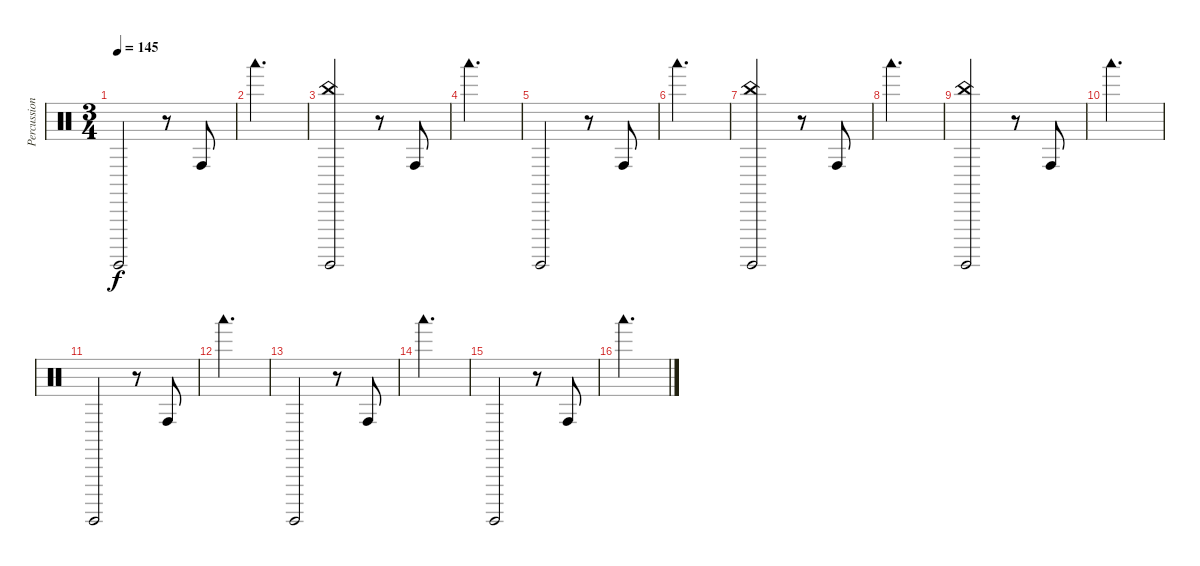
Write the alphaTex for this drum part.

\track ("Percussion" "Percussion") {instrument percussion}
\staff {score}
\articulation defaults
\ts (3 4)
\tempo 145
\clef neutral
\ks c "Surdo (hit)".2{dy f}
r.8 "Conga high (hit)".8 |
"Woodblock low (hit)".2{d} |
("China (hit)" "Surdo (hit)").2 r.8 "Conga high (hit)".8 |
"Woodblock low (hit)".2{d} |
"Surdo (hit)".2 r.8 "Conga high (hit)".8 |
"Woodblock low (hit)".2{d} |
("China (hit)" "Surdo (hit)").2 r.8 "Conga high (hit)".8 |
"Woodblock low (hit)".2{d} |
("China (hit)" "Surdo (hit)").2 r.8 "Conga high (hit)".8 |
"Woodblock low (hit)".2{d} |
"Surdo (hit)".2 r.8 "Conga high (hit)".8 |
"Woodblock low (hit)".2{d} |
"Surdo (hit)".2 r.8 "Conga high (hit)".8 |
"Woodblock low (hit)".2{d} |
"Surdo (hit)".2 r.8 "Conga high (hit)".8 |
"Woodblock low (hit)".2{d}
